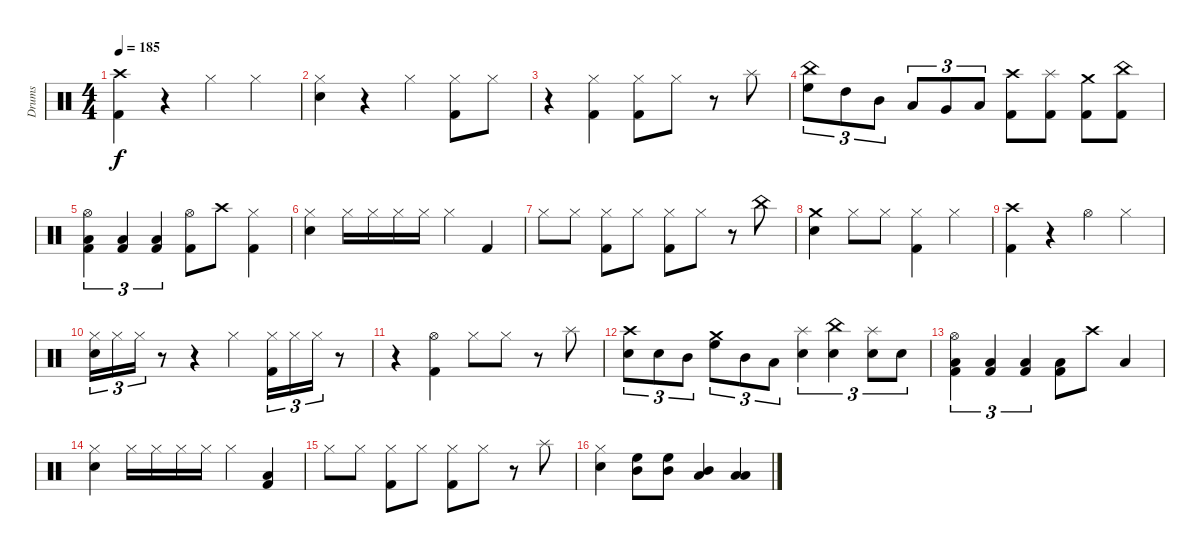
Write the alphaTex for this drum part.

\track ("Drums" "Drums") {instrument percussion}
\staff {score}
\articulation defaults
\ts (4 4)
\tempo 185
\clef neutral
\ks c
("Crash high (hit)" "Kick (hit) 2").4{dy f} r.4 "Hi-Hat (closed)".4 "Hi-Hat (closed)".4 |
("Hi-Hat (closed)" "Snare (hit) 2").4 r.4 "Hi-Hat (closed)".4 ("Hi-Hat (closed)" "Kick (hit) 2").8 "Hi-Hat (closed)".8 |
r.4 ("Hi-Hat (closed)" "Kick (hit) 2").4 ("Hi-Hat (closed)" "Kick (hit) 2").8 "Hi-Hat (closed)".8 r.8 "Splash (hit)".8 |
("High Floor Tom (hit)" "China (hit)").8{tu (3 2)} "High Tom (hit)".8{tu (3 2)} "Mid Tom (hit)".8{tu (3 2)} "Low Tom (hit)".8{tu (3 2)} "Very Low Tom (hit)".8{tu (3 2)} "Low Floor Tom (hit)".8{tu (3 2)} ("Crash high (hit)" "Kick (hit) 2").8 ("Splash (hit)" "Kick (hit) 2").8 ("Crash medium (hit)" "Kick (hit) 2").8 ("China (hit)" "Kick (hit) 2").8 |
("Hi-Hat (open)" "Low Tom (hit)" "Kick (hit) 2").4{tu (3 2)} ("Low Tom (hit)" "Kick (hit) 2").4{tu (3 2)} ("Low Tom (hit)" "Kick (hit) 2").4{tu (3 2)} ("Hi-Hat (open)" "Kick (hit) 2").8 "Crash high (hit)".8 ("Hi-Hat (closed)" "Kick (hit) 2").4 |
("Hi-Hat (closed)" "Snare (hit) 2").4 "Hi-Hat (closed)".16 "Hi-Hat (closed)".16 "Hi-Hat (closed)".16 "Hi-Hat (closed)".16 "Hi-Hat (closed)".4 "Kick (hit) 2".4 |
"Hi-Hat (closed)".8 "Hi-Hat (closed)".8 ("Hi-Hat (closed)" "Kick (hit) 2").8 "Hi-Hat (closed)".8 ("Hi-Hat (closed)" "Kick (hit) 2").8 "Hi-Hat (closed)".8 r.8 "China (hit)".8 |
("Crash medium (hit)" "Snare (hit) 2").4 "Hi-Hat (closed)".8 "Hi-Hat (closed)".8 ("Hi-Hat (closed)" "Kick (hit) 2").4 "Hi-Hat (closed)".4 |
("Crash high (hit)" "Kick (hit) 2").4 r.4 "Hi-Hat (open)".4 "Hi-Hat (closed)".4 |
("Hi-Hat (closed)" "Snare (hit) 2").16{tu (3 2)} "Hi-Hat (closed)".16{tu (3 2)} "Hi-Hat (closed)".16{tu (3 2)} r.8 r.4 "Hi-Hat (closed)".4 ("Hi-Hat (closed)" "Kick (hit) 2").16{tu (3 2)} "Hi-Hat (closed)".16{tu (3 2)} "Hi-Hat (closed)".16{tu (3 2)} r.8 |
r.4 ("Hi-Hat (open)" "Kick (hit) 2").4 "Hi-Hat (closed)".8 "Hi-Hat (closed)".8 r.8 "Splash (hit)".8 |
("Crash high (hit)" "Snare (hit) 2").8{tu (3 2)} "Snare (hit) 2".8{tu (3 2)} "Mid Tom (hit)".8{tu (3 2)} ("Crash medium (hit)" "High Floor Tom (hit)").8{tu (3 2)} "Mid Tom (hit)".8{tu (3 2)} "Low Tom (hit)".8{tu (3 2)} ("Splash (hit)" "Snare (hit) 2").4{tu (3 2)} ("China (hit)" "Snare (hit) 2").4{tu (3 2)} ("Splash (hit)" "Snare (hit) 2").8{tu (3 2)} "Snare (hit) 2".8{tu (3 2)} |
("Hi-Hat (open)" "Low Tom (hit)" "Kick (hit) 2").4{tu (3 2)} ("Low Tom (hit)" "Kick (hit) 2").4{tu (3 2)} ("Low Tom (hit)" "Kick (hit) 2").4{tu (3 2)} ("Low Tom (hit)" "Kick (hit) 2").8 "Crash high (hit)".8 "Low Tom (hit)".4 |
("Hi-Hat (closed)" "Snare (hit) 2").4 "Hi-Hat (closed)".16 "Hi-Hat (closed)".16 "Hi-Hat (closed)".16 "Hi-Hat (closed)".16 "Hi-Hat (closed)".4 ("Low Tom (hit)" "Kick (hit) 2").4 |
"Hi-Hat (closed)".8 "Hi-Hat (closed)".8 ("Hi-Hat (closed)" "Kick (hit) 2").8 "Hi-Hat (closed)".8 ("Hi-Hat (closed)" "Kick (hit) 2").8 "Hi-Hat (closed)".8 r.8 "Splash (hit)".8 |
("Hi-Hat (closed)" "Snare (hit) 2").4 ("High Floor Tom (hit)" "Mid Tom (hit)").8 ("High Floor Tom (hit)" "Mid Tom (hit)").8 ("Mid Tom (hit)" "Low Tom (hit)").4 ("Low Tom (hit)" "Low Floor Tom (hit)").4
